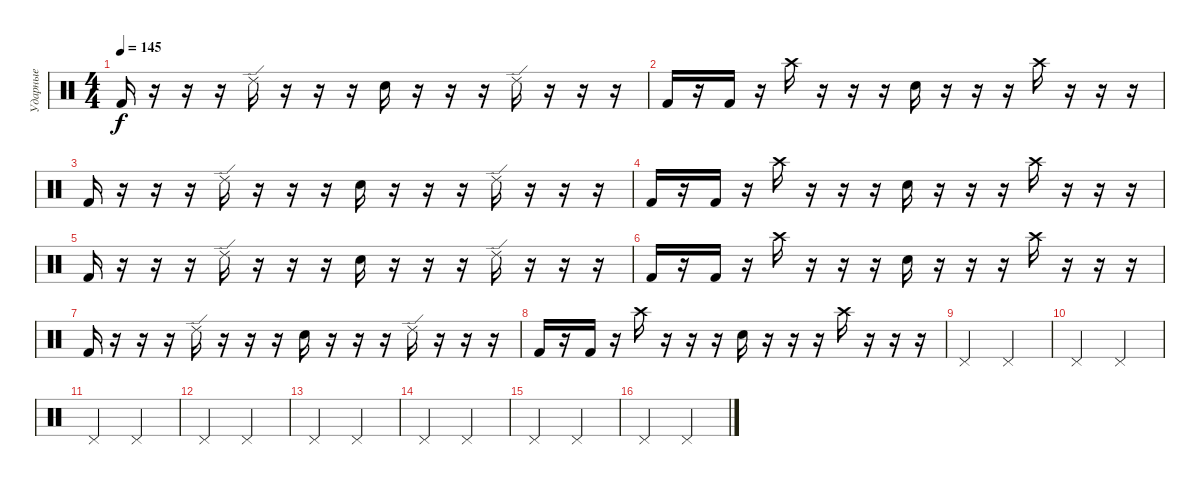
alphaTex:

\track ("Ударные" "Ударные") {instrument percussion}
\staff {score}
\articulation defaults
\ts (4 4)
\tempo 145
\clef neutral
\ks c "Kick (hit) 2".16{dy f}
r.16 r.16 r.16 "Ride (edge) 2".16 r.16 r.16 r.16 "Electric Snare (hit)".16 r.16 r.16 r.16 "Ride (edge) 2".16 r.16 r.16 r.16 |
"Kick (hit) 2".16 r.16 "Kick (hit) 2".16 r.16 "Crash high (hit)".16 r.16 r.16 r.16 "Electric Snare (hit)".16 r.16 r.16 r.16 "Crash high (hit)".16 r.16 r.16 r.16 |
"Kick (hit) 2".16 r.16 r.16 r.16 "Ride (edge) 2".16 r.16 r.16 r.16 "Electric Snare (hit)".16 r.16 r.16 r.16 "Ride (edge) 2".16 r.16 r.16 r.16 |
"Kick (hit) 2".16 r.16 "Kick (hit) 2".16 r.16 "Crash high (hit)".16 r.16 r.16 r.16 "Electric Snare (hit)".16 r.16 r.16 r.16 "Crash high (hit)".16 r.16 r.16 r.16 |
"Kick (hit) 2".16 r.16 r.16 r.16 "Ride (edge) 2".16 r.16 r.16 r.16 "Electric Snare (hit)".16 r.16 r.16 r.16 "Ride (edge) 2".16 r.16 r.16 r.16 |
"Kick (hit) 2".16 r.16 "Kick (hit) 2".16 r.16 "Crash high (hit)".16 r.16 r.16 r.16 "Electric Snare (hit)".16 r.16 r.16 r.16 "Crash high (hit)".16 r.16 r.16 r.16 |
"Kick (hit) 2".16 r.16 r.16 r.16 "Ride (edge) 2".16 r.16 r.16 r.16 "Electric Snare (hit)".16 r.16 r.16 r.16 "Ride (edge) 2".16 r.16 r.16 r.16 |
"Kick (hit) 2".16 r.16 "Kick (hit) 2".16 r.16 "Crash high (hit)".16 r.16 r.16 r.16 "Electric Snare (hit)".16 r.16 r.16 r.16 "Crash high (hit)".16 r.16 r.16 r.16 |
"Pedal Hi-Hat (hit)".2 "Pedal Hi-Hat (hit)".2 |
"Pedal Hi-Hat (hit)".2 "Pedal Hi-Hat (hit)".2 |
"Pedal Hi-Hat (hit)".2 "Pedal Hi-Hat (hit)".2 |
"Pedal Hi-Hat (hit)".2 "Pedal Hi-Hat (hit)".2 |
"Pedal Hi-Hat (hit)".2 "Pedal Hi-Hat (hit)".2 |
"Pedal Hi-Hat (hit)".2 "Pedal Hi-Hat (hit)".2 |
"Pedal Hi-Hat (hit)".2 "Pedal Hi-Hat (hit)".2 |
"Pedal Hi-Hat (hit)".2 "Pedal Hi-Hat (hit)".2
